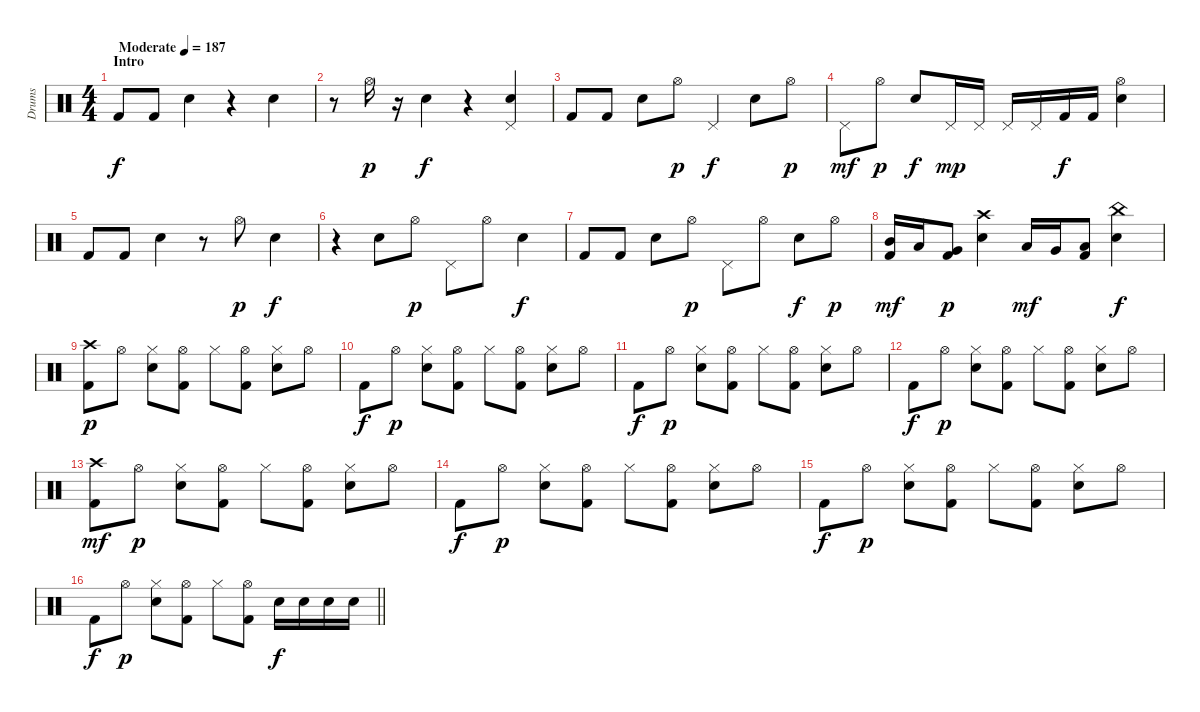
\track ("Drums" "Drums") {instrument percussion}
\staff {score}
\articulation defaults
\ts (4 4)
\section ("" "Intro")
\tempo (187 "Moderate")
\clef neutral
\ks c "Kick (hit) 2".8{dy f} "Kick (hit) 2".8 "Electric Snare (hit)".4
r.4 "Electric Snare (hit)".4 |
r.8 "Hi-Hat (open)".16{dy p} r.16 "Electric Snare (hit)".4{dy f} r.4 ("Pedal Hi-Hat (hit)" "Electric Snare (hit)").4 |
"Kick (hit) 2".8 "Kick (hit) 2".8 "Electric Snare (hit)".8 "Hi-Hat (open)".8{dy p} "Pedal Hi-Hat (hit)".4{dy f} "Electric Snare (hit)".8 "Hi-Hat (open)".8{dy p} |
"Pedal Hi-Hat (hit)".8{dy mf} "Hi-Hat (open)".8{dy p} "Electric Snare (hit)".8{dy f} "Pedal Hi-Hat (hit)".16{dy mp} "Pedal Hi-Hat (hit)".16 "Pedal Hi-Hat (hit)".16 "Pedal Hi-Hat (hit)".16 "Kick (hit) 2".16{dy f} "Kick (hit) 2".16 ("Hi-Hat (open)" "Electric Snare (hit)").4 |
"Kick (hit) 2".8 "Kick (hit) 2".8 "Electric Snare (hit)".4 r.8 "Hi-Hat (open)".8{dy p} "Electric Snare (hit)".4{dy f} |
r.4 "Electric Snare (hit)".8 "Hi-Hat (open)".8{dy p} "Pedal Hi-Hat (hit)".8 "Hi-Hat (open)".8 "Electric Snare (hit)".4{dy f} |
"Kick (hit) 2".8 "Kick (hit) 2".8 "Electric Snare (hit)".8 "Hi-Hat (open)".8{dy p} "Pedal Hi-Hat (hit)".8 "Hi-Hat (open)".8 "Electric Snare (hit)".8{dy f} "Hi-Hat (open)".8{dy p} |
("Mid Tom (hit)" "Kick (hit) 2").16{dy mf} "Low Tom (hit)".16 ("Very Low Tom (hit)" "Kick (hit) 2").8{dy p} ("Crash high (hit)" "Electric Snare (hit)").4 "Low Tom (hit)".16{dy mf} "Very Low Tom (hit)".16 ("Low Floor Tom (hit)" "Kick (hit) 2").8 ("China (hit)" "Electric Snare (hit)").4{dy f} |
("Crash high (hit)" "Kick (hit) 2").8{dy p} "Hi-Hat (open)".8 ("Hi-Hat (closed)" "Electric Snare (hit)").8 ("Hi-Hat (open)" "Kick (hit) 2").8 "Hi-Hat (closed)".8 ("Hi-Hat (open)" "Kick (hit) 2").8 ("Hi-Hat (closed)" "Electric Snare (hit)").8 "Hi-Hat (open)".8 |
"Kick (hit) 2".8{dy f} "Hi-Hat (open)".8{dy p} ("Hi-Hat (closed)" "Electric Snare (hit)").8 ("Hi-Hat (open)" "Kick (hit) 2").8 "Hi-Hat (closed)".8 ("Hi-Hat (open)" "Kick (hit) 2").8 ("Hi-Hat (closed)" "Electric Snare (hit)").8 "Hi-Hat (open)".8 |
"Kick (hit) 2".8{dy f} "Hi-Hat (open)".8{dy p} ("Hi-Hat (closed)" "Electric Snare (hit)").8 ("Hi-Hat (open)" "Kick (hit) 2").8 "Hi-Hat (closed)".8 ("Hi-Hat (open)" "Kick (hit) 2").8 ("Hi-Hat (closed)" "Electric Snare (hit)").8 "Hi-Hat (open)".8 |
"Kick (hit) 2".8{dy f} "Hi-Hat (open)".8{dy p} ("Hi-Hat (closed)" "Electric Snare (hit)").8 ("Hi-Hat (open)" "Kick (hit) 2").8 "Hi-Hat (closed)".8 ("Hi-Hat (open)" "Kick (hit) 2").8 ("Hi-Hat (closed)" "Electric Snare (hit)").8 "Hi-Hat (open)".8 |
("Crash high (hit)" "Kick (hit) 2").8{dy mf} "Hi-Hat (open)".8{dy p} ("Hi-Hat (closed)" "Electric Snare (hit)").8 ("Hi-Hat (open)" "Kick (hit) 2").8 "Hi-Hat (closed)".8 ("Hi-Hat (open)" "Kick (hit) 2").8 ("Hi-Hat (closed)" "Electric Snare (hit)").8 "Hi-Hat (open)".8 |
"Kick (hit) 2".8{dy f} "Hi-Hat (open)".8{dy p} ("Hi-Hat (closed)" "Electric Snare (hit)").8 ("Hi-Hat (open)" "Kick (hit) 2").8 "Hi-Hat (closed)".8 ("Hi-Hat (open)" "Kick (hit) 2").8 ("Hi-Hat (closed)" "Electric Snare (hit)").8 "Hi-Hat (open)".8 |
"Kick (hit) 2".8{dy f} "Hi-Hat (open)".8{dy p} ("Hi-Hat (closed)" "Electric Snare (hit)").8 ("Hi-Hat (open)" "Kick (hit) 2").8 "Hi-Hat (closed)".8 ("Hi-Hat (open)" "Kick (hit) 2").8 ("Hi-Hat (closed)" "Electric Snare (hit)").8 "Hi-Hat (open)".8 |
\barLineRight lightlight "Kick (hit) 2".8{dy f} "Hi-Hat (open)".8{dy p}
("Hi-Hat (closed)" "Electric Snare (hit)").8 ("Hi-Hat (open)" "Kick (hit) 2").8 "Hi-Hat (closed)".8 ("Hi-Hat (open)" "Kick (hit) 2").8 "Electric Snare (hit)".16{dy f} "Electric Snare (hit)".16 "Electric Snare (hit)".16 "Electric Snare (hit)".16
